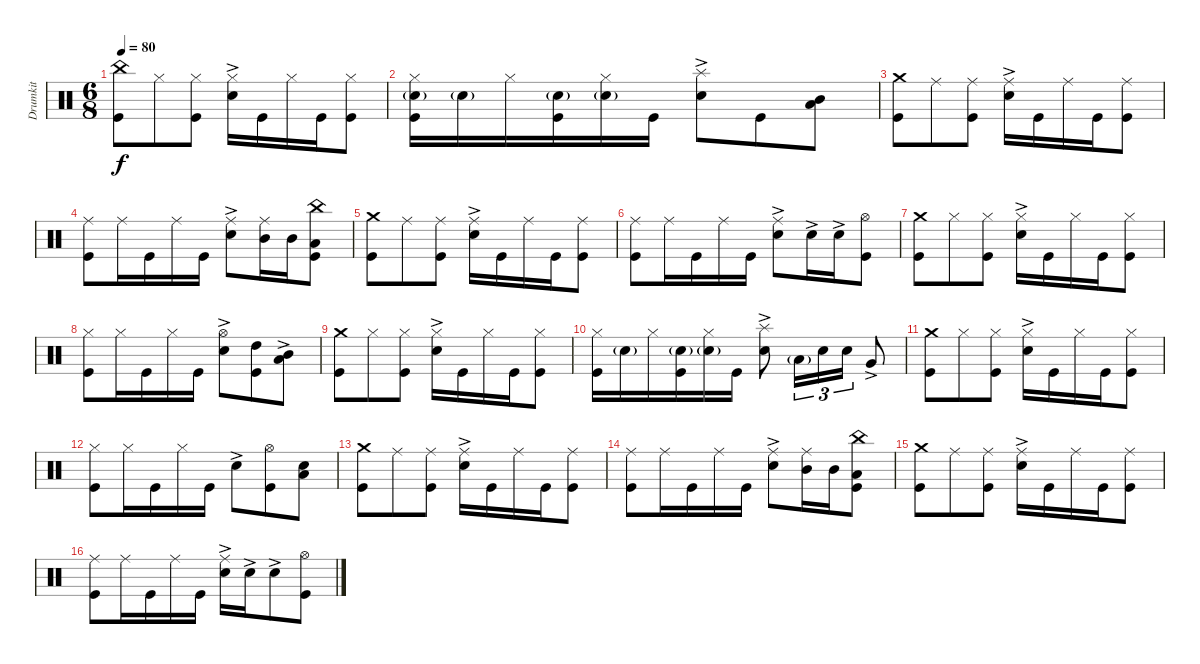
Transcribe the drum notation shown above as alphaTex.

\track ("Drumkit" "Drumkit") {instrument percussion}
\staff {score}
\articulation defaults
\ts (6 8)
\tempo 80
\clef neutral
\ks c
("Kick (hit)" "China (hit)").8{dy f} "Hi-Hat (closed)".8 ("Kick (hit)" "Hi-Hat (closed)").8 ("Hi-Hat (closed)" "Snare (hit) 2"{ac}).16 "Kick (hit)".16 "Hi-Hat (closed)".16 "Kick (hit)".16 ("Kick (hit)" "Hi-Hat (closed)").8 |
("Kick (hit)" "Hi-Hat (closed)" "Snare (hit) 2"{g}).16 "Snare (hit) 2"{g}.16 "Hi-Hat (closed)".16 ("Kick (hit)" "Snare (hit) 2"{g}).16 ("Hi-Hat (closed)" "Snare (hit) 2"{g}).16 "Kick (hit)".16 ("Snare (hit) 2"{ac} "Splash (hit)").8 "Kick (hit)".8 ("Low Tom (hit)" "Mid Tom (hit)").8 |
("Kick (hit)" "Crash medium (hit)").8 "Ride (middle)".8 ("Kick (hit)" "Ride (middle)").8 ("Snare (hit) 2"{ac} "Ride (middle)").16 "Kick (hit)".16 "Ride (middle)".16 "Kick (hit)".16 ("Kick (hit)" "Ride (middle)").8 |
("Kick (hit)" "Ride (middle)").8 "Ride (middle)".16 "Kick (hit)".16 "Ride (middle)".16 "Kick (hit)".16 ("Snare (hit) 2"{ac} "Ride (middle)").8 ("Mid Tom (hit)" "Ride (middle)").16 "Mid Tom (hit)".16 ("Low Tom (hit)" "China (hit)" "Kick (hit)").8 |
("Kick (hit)" "Crash medium (hit)").8 "Ride (middle)".8 ("Kick (hit)" "Ride (middle)").8 ("Snare (hit) 2"{ac} "Ride (middle)").16 "Kick (hit)".16 "Ride (middle)".16 "Kick (hit)".16 ("Kick (hit)" "Ride (middle)").8 |
("Kick (hit)" "Ride (middle)").8 "Ride (middle)".16 "Kick (hit)".16 "Ride (middle)".16 "Kick (hit)".16 ("Snare (hit) 2"{ac} "Ride (middle)").8 "Snare (hit) 2"{ac}.16 "Snare (hit) 2"{ac}.16 ("Kick (hit)" "Hi-Hat (open)").8 |
("Kick (hit)" "Crash medium (hit)").8 "Hi-Hat (closed)".8 ("Kick (hit)" "Hi-Hat (closed)").8 ("Hi-Hat (closed)" "Snare (hit) 2"{ac}).16 "Kick (hit)".16 "Hi-Hat (closed)".16 "Kick (hit)".16 ("Kick (hit)" "Hi-Hat (closed)").8 |
("Kick (hit)" "Hi-Hat (closed)").8 "Hi-Hat (closed)".16 "Kick (hit)".16 "Hi-Hat (closed)".16 "Kick (hit)".16 ("Snare (hit) 2"{ac} "Hi-Hat (open)").8 ("Kick (hit)" "High Tom (hit)").8 ("Low Tom (hit)" "Mid Tom (hit)"{ac}).8 |
("Kick (hit)" "Crash medium (hit)").8 "Hi-Hat (closed)".8 ("Kick (hit)" "Hi-Hat (closed)").8 ("Hi-Hat (closed)" "Snare (hit) 2"{ac}).16 "Kick (hit)".16 "Hi-Hat (closed)".16 "Kick (hit)".16 ("Kick (hit)" "Hi-Hat (closed)").8 |
("Kick (hit)" "Hi-Hat (closed)").16 "Snare (hit) 2"{g}.16 "Hi-Hat (closed)".16 ("Kick (hit)" "Snare (hit) 2"{g}).16 ("Hi-Hat (closed)" "Snare (hit) 2"{g}).16 "Kick (hit)".16 ("Snare (hit) 2"{ac} "Splash (hit)").8 "Low Tom (hit)"{g}.16{tu (3 2)} "Snare (hit) 2".16{tu (3 2)} "Snare (hit) 2".16{tu (3 2)} "Very Low Tom (hit)"{ac}.8 |
("Kick (hit)" "Crash medium (hit)").8 "Hi-Hat (closed)".8 ("Kick (hit)" "Hi-Hat (closed)").8 ("Hi-Hat (closed)" "Snare (hit) 2"{ac}).16 "Kick (hit)".16 "Hi-Hat (closed)".16 "Kick (hit)".16 ("Kick (hit)" "Hi-Hat (closed)").8 |
("Kick (hit)" "Hi-Hat (closed)").8 "Hi-Hat (closed)".16 "Kick (hit)".16 "Hi-Hat (closed)".16 "Kick (hit)".16 "Snare (hit) 2"{ac}.8 ("Kick (hit)" "Hi-Hat (open)").8 ("Low Tom (hit)" "Snare (hit) 2").8 |
("Kick (hit)" "Crash medium (hit)").8 "Ride (middle)".8 ("Kick (hit)" "Ride (middle)").8 ("Snare (hit) 2"{ac} "Ride (middle)").16 "Kick (hit)".16 "Ride (middle)".16 "Kick (hit)".16 ("Kick (hit)" "Ride (middle)").8 |
("Kick (hit)" "Ride (middle)").8 "Ride (middle)".16 "Kick (hit)".16 "Ride (middle)".16 "Kick (hit)".16 ("Snare (hit) 2"{ac} "Ride (middle)").8 ("Mid Tom (hit)" "Ride (middle)").16 "Mid Tom (hit)".16 ("Low Tom (hit)" "China (hit)" "Kick (hit)").8 |
("Kick (hit)" "Crash medium (hit)").8 "Ride (middle)".8 ("Kick (hit)" "Ride (middle)").8 ("Snare (hit) 2"{ac} "Ride (middle)").16 "Kick (hit)".16 "Ride (middle)".16 "Kick (hit)".16 ("Kick (hit)" "Ride (middle)").8 |
("Kick (hit)" "Ride (middle)").8 "Ride (middle)".16 "Kick (hit)".16 "Ride (middle)".16 "Kick (hit)".16 ("Snare (hit) 2"{ac} "Ride (middle)").16 "Snare (hit) 2"{ac}.16 "Snare (hit) 2"{ac}.8 ("Kick (hit)" "Hi-Hat (open)").8
